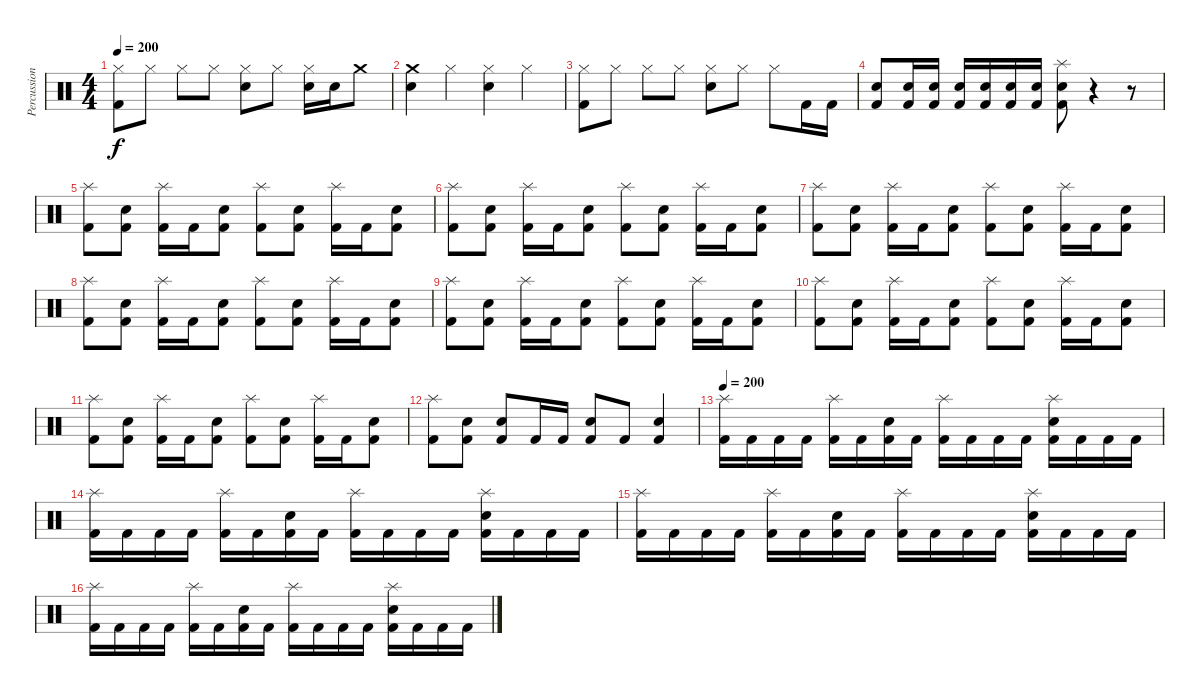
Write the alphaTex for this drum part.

\track ("Percussion" "Percussion") {instrument percussion}
\staff {score}
\articulation defaults
\ts (4 4)
\tempo 200
\clef neutral
\ks c
("Kick (hit) 2" "Hi-Hat (closed)").8{dy f} "Hi-Hat (closed)".8 "Hi-Hat (closed)".8 "Hi-Hat (closed)".8 ("Snare (hit) 2" "Hi-Hat (closed)").8 "Hi-Hat (closed)".8 ("Snare (hit) 2" "Hi-Hat (closed)").16 "Snare (hit) 2".16 "Crash medium (hit)".8 |
("Snare (hit) 2" "Crash medium (hit)").4 "Hi-Hat (closed)".4 ("Snare (hit) 2" "Hi-Hat (closed)").4 "Hi-Hat (closed)".4 |
("Kick (hit) 2" "Hi-Hat (closed)").8 "Hi-Hat (closed)".8 "Hi-Hat (closed)".8 "Hi-Hat (closed)".8 ("Snare (hit) 2" "Hi-Hat (closed)").8 "Hi-Hat (closed)".8 "Hi-Hat (closed)".8 "Kick (hit) 2".16 "Kick (hit) 2".16 |
("Kick (hit) 2" "Snare (hit) 2").8 ("Kick (hit) 2" "Snare (hit) 2").16 ("Kick (hit) 2" "Snare (hit) 2").16 ("Kick (hit) 2" "Snare (hit) 2").16 ("Kick (hit) 2" "Snare (hit) 2").16 ("Kick (hit) 2" "Snare (hit) 2").16 ("Kick (hit) 2" "Snare (hit) 2").16 ("Kick (hit) 2" "Snare (hit) 2" "Splash (hit)").8 r.4 r.8 |
("Kick (hit) 2" "Splash (hit)").8 ("Kick (hit) 2" "Snare (hit) 2").8 ("Kick (hit) 2" "Splash (hit)").16 "Kick (hit) 2".16 ("Kick (hit) 2" "Snare (hit) 2").8 ("Kick (hit) 2" "Splash (hit)").8 ("Kick (hit) 2" "Snare (hit) 2").8 ("Kick (hit) 2" "Splash (hit)").16 "Kick (hit) 2".16 ("Kick (hit) 2" "Snare (hit) 2").8 |
("Kick (hit) 2" "Splash (hit)").8 ("Kick (hit) 2" "Snare (hit) 2").8 ("Kick (hit) 2" "Splash (hit)").16 "Kick (hit) 2".16 ("Kick (hit) 2" "Snare (hit) 2").8 ("Kick (hit) 2" "Splash (hit)").8 ("Kick (hit) 2" "Snare (hit) 2").8 ("Kick (hit) 2" "Splash (hit)").16 "Kick (hit) 2".16 ("Kick (hit) 2" "Snare (hit) 2").8 |
("Kick (hit) 2" "Splash (hit)").8 ("Kick (hit) 2" "Snare (hit) 2").8 ("Kick (hit) 2" "Splash (hit)").16 "Kick (hit) 2".16 ("Kick (hit) 2" "Snare (hit) 2").8 ("Kick (hit) 2" "Splash (hit)").8 ("Kick (hit) 2" "Snare (hit) 2").8 ("Kick (hit) 2" "Splash (hit)").16 "Kick (hit) 2".16 ("Kick (hit) 2" "Snare (hit) 2").8 |
("Kick (hit) 2" "Splash (hit)").8 ("Kick (hit) 2" "Snare (hit) 2").8 ("Kick (hit) 2" "Splash (hit)").16 "Kick (hit) 2".16 ("Kick (hit) 2" "Snare (hit) 2").8 ("Kick (hit) 2" "Splash (hit)").8 ("Kick (hit) 2" "Snare (hit) 2").8 ("Kick (hit) 2" "Splash (hit)").16 "Kick (hit) 2".16 ("Kick (hit) 2" "Snare (hit) 2").8 |
("Kick (hit) 2" "Splash (hit)").8 ("Kick (hit) 2" "Snare (hit) 2").8 ("Kick (hit) 2" "Splash (hit)").16 "Kick (hit) 2".16 ("Kick (hit) 2" "Snare (hit) 2").8 ("Kick (hit) 2" "Splash (hit)").8 ("Kick (hit) 2" "Snare (hit) 2").8 ("Kick (hit) 2" "Splash (hit)").16 "Kick (hit) 2".16 ("Kick (hit) 2" "Snare (hit) 2").8 |
("Kick (hit) 2" "Splash (hit)").8 ("Kick (hit) 2" "Snare (hit) 2").8 ("Kick (hit) 2" "Splash (hit)").16 "Kick (hit) 2".16 ("Kick (hit) 2" "Snare (hit) 2").8 ("Kick (hit) 2" "Splash (hit)").8 ("Kick (hit) 2" "Snare (hit) 2").8 ("Kick (hit) 2" "Splash (hit)").16 "Kick (hit) 2".16 ("Kick (hit) 2" "Snare (hit) 2").8 |
("Kick (hit) 2" "Splash (hit)").8 ("Kick (hit) 2" "Snare (hit) 2").8 ("Kick (hit) 2" "Splash (hit)").16 "Kick (hit) 2".16 ("Kick (hit) 2" "Snare (hit) 2").8 ("Kick (hit) 2" "Splash (hit)").8 ("Kick (hit) 2" "Snare (hit) 2").8 ("Kick (hit) 2" "Splash (hit)").16 "Kick (hit) 2".16 ("Kick (hit) 2" "Snare (hit) 2").8 |
("Kick (hit) 2" "Splash (hit)").8 ("Kick (hit) 2" "Snare (hit) 2").8 ("Kick (hit) 2" "Snare (hit) 2").8 "Kick (hit) 2".16 "Kick (hit) 2".16 ("Kick (hit) 2" "Snare (hit) 2").8 "Kick (hit) 2".8 ("Kick (hit) 2" "Snare (hit) 2").4 |
\tempo 200
("Kick (hit) 2" "Splash (hit)").16 "Kick (hit) 2".16 "Kick (hit) 2".16 "Kick (hit) 2".16 ("Kick (hit) 2" "Splash (hit)").16 "Kick (hit) 2".16 ("Kick (hit) 2" "Snare (hit) 2").16 "Kick (hit) 2".16 ("Kick (hit) 2" "Splash (hit)").16 "Kick (hit) 2".16 "Kick (hit) 2".16 "Kick (hit) 2".16 ("Kick (hit) 2" "Splash (hit)" "Snare (hit) 2").16 "Kick (hit) 2".16 "Kick (hit) 2".16 "Kick (hit) 2".16 |
("Kick (hit) 2" "Splash (hit)").16 "Kick (hit) 2".16 "Kick (hit) 2".16 "Kick (hit) 2".16 ("Kick (hit) 2" "Splash (hit)").16 "Kick (hit) 2".16 ("Kick (hit) 2" "Snare (hit) 2").16 "Kick (hit) 2".16 ("Kick (hit) 2" "Splash (hit)").16 "Kick (hit) 2".16 "Kick (hit) 2".16 "Kick (hit) 2".16 ("Kick (hit) 2" "Splash (hit)" "Snare (hit) 2").16 "Kick (hit) 2".16 "Kick (hit) 2".16 "Kick (hit) 2".16 |
("Kick (hit) 2" "Splash (hit)").16 "Kick (hit) 2".16 "Kick (hit) 2".16 "Kick (hit) 2".16 ("Kick (hit) 2" "Splash (hit)").16 "Kick (hit) 2".16 ("Kick (hit) 2" "Snare (hit) 2").16 "Kick (hit) 2".16 ("Kick (hit) 2" "Splash (hit)").16 "Kick (hit) 2".16 "Kick (hit) 2".16 "Kick (hit) 2".16 ("Kick (hit) 2" "Splash (hit)" "Snare (hit) 2").16 "Kick (hit) 2".16 "Kick (hit) 2".16 "Kick (hit) 2".16 |
("Kick (hit) 2" "Splash (hit)").16 "Kick (hit) 2".16 "Kick (hit) 2".16 "Kick (hit) 2".16 ("Kick (hit) 2" "Splash (hit)").16 "Kick (hit) 2".16 ("Kick (hit) 2" "Snare (hit) 2").16 "Kick (hit) 2".16 ("Kick (hit) 2" "Splash (hit)").16 "Kick (hit) 2".16 "Kick (hit) 2".16 "Kick (hit) 2".16 ("Kick (hit) 2" "Splash (hit)" "Snare (hit) 2").16 "Kick (hit) 2".16 "Kick (hit) 2".16 "Kick (hit) 2".16
